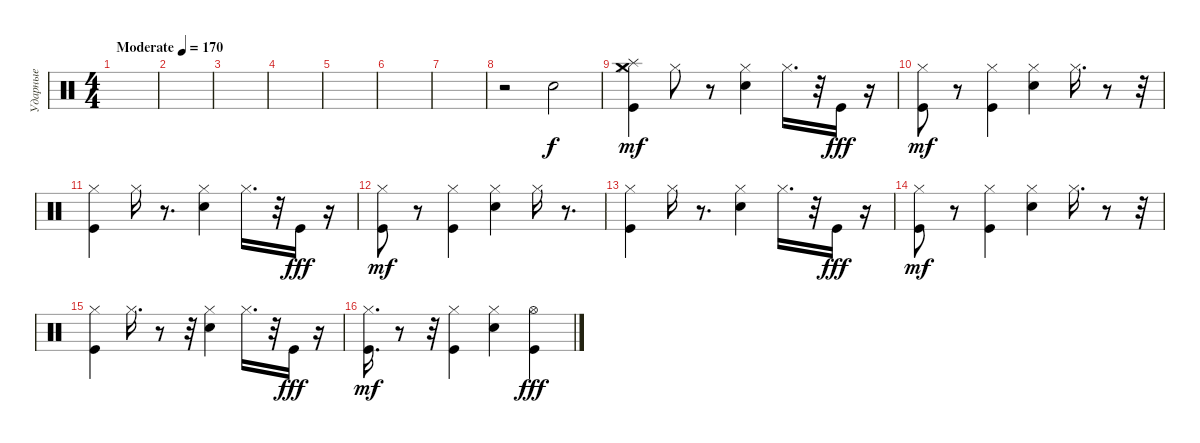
\track ("Ударные" "Ударные") {instrument percussion}
\staff {score}
\articulation defaults
\ts (4 4)
\tempo (170 "Moderate")
\clef neutral
\ks c
|
|
|
|
|
|
|
r.2 "Snare (hit) 2".2 |
("Kick (hit)" "Crash medium (hit)" "Splash (hit)" "Hi-Hat (closed)").4{dy mf} "Hi-Hat (closed)".8 r.8 ("Snare (hit) 2" "Hi-Hat (closed)").4 "Hi-Hat (closed)".16{d} r.32 "Kick (hit)".16{dy fff} r.16 |
("Kick (hit)" "Hi-Hat (closed)").8{dy mf} r.8 ("Kick (hit)" "Hi-Hat (closed)").4 ("Snare (hit) 2" "Hi-Hat (closed)").4 "Hi-Hat (closed)".16{d} r.8 r.32 |
("Kick (hit)" "Hi-Hat (closed)").4 "Hi-Hat (closed)".16 r.8{d} ("Snare (hit) 2" "Hi-Hat (closed)").4 "Hi-Hat (closed)".16{d} r.32 "Kick (hit)".16{dy fff} r.16 |
("Kick (hit)" "Hi-Hat (closed)").8{dy mf} r.8 ("Kick (hit)" "Hi-Hat (closed)").4 ("Snare (hit) 2" "Hi-Hat (closed)").4 "Hi-Hat (closed)".16 r.8{d} |
("Kick (hit)" "Hi-Hat (closed)").4 "Hi-Hat (closed)".16 r.8{d} ("Snare (hit) 2" "Hi-Hat (closed)").4 "Hi-Hat (closed)".16{d} r.32 "Kick (hit)".16{dy fff} r.16 |
("Kick (hit)" "Hi-Hat (closed)").8{dy mf} r.8 ("Kick (hit)" "Hi-Hat (closed)").4 ("Snare (hit) 2" "Hi-Hat (closed)").4 "Hi-Hat (closed)".16{d} r.8 r.32 |
("Kick (hit)" "Hi-Hat (closed)").4 "Hi-Hat (closed)".16{d} r.8 r.32 ("Snare (hit) 2" "Hi-Hat (closed)").4 "Hi-Hat (closed)".16{d} r.32 "Kick (hit)".16{dy fff} r.16 |
("Kick (hit)" "Hi-Hat (closed)").16{d dy mf} r.8 r.32 ("Kick (hit)" "Hi-Hat (closed)").4 ("Snare (hit) 2" "Hi-Hat (closed)").4 ("Kick (hit)" "Hi-Hat (open)").4{dy fff}
